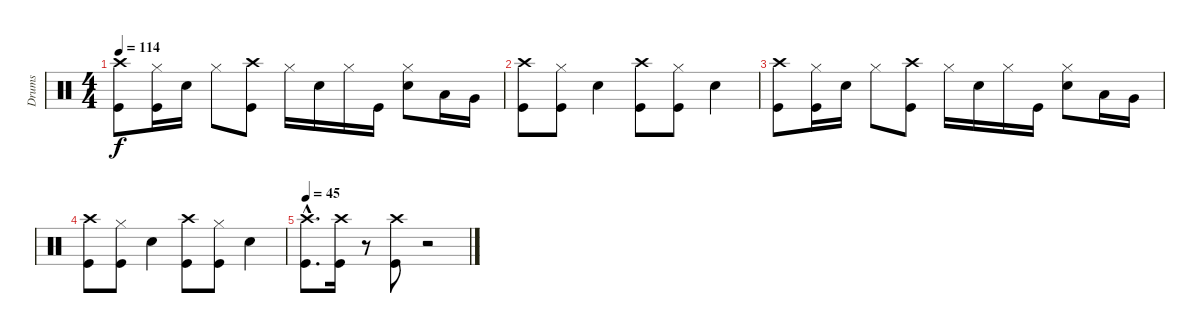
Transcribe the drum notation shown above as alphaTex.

\track ("Drums" "Drums") {instrument percussion}
\staff {score}
\articulation defaults
\ts (4 4)
\tempo 114
\clef neutral
\ks c
("Crash high (hit)" "Kick (hit)").8{dy f} ("Hi-Hat (closed)" "Kick (hit)").16 "Snare (hit) 2".16 "Hi-Hat (closed)".8 ("Crash high (hit)" "Kick (hit)").8 "Hi-Hat (closed)".16 "Snare (hit) 2".16 "Hi-Hat (closed)".16 "Kick (hit)".16 ("Hi-Hat (closed)" "Snare (hit) 2").8 "Low Tom (hit)".16 "Very Low Tom (hit)".16 |
("Crash high (hit)" "Kick (hit)").8 ("Hi-Hat (closed)" "Kick (hit)").8 "Snare (hit) 2".4 ("Crash high (hit)" "Kick (hit)").8 ("Hi-Hat (closed)" "Kick (hit)").8 "Snare (hit) 2".4 |
("Crash high (hit)" "Kick (hit)").8 ("Hi-Hat (closed)" "Kick (hit)").16 "Snare (hit) 2".16 "Hi-Hat (closed)".8 ("Crash high (hit)" "Kick (hit)").8 "Hi-Hat (closed)".16 "Snare (hit) 2".16 "Hi-Hat (closed)".16 "Kick (hit)".16 ("Hi-Hat (closed)" "Snare (hit) 2").8 "Low Tom (hit)".16 "Very Low Tom (hit)".16 |
("Crash high (hit)" "Kick (hit)").8 ("Hi-Hat (closed)" "Kick (hit)").8 "Snare (hit) 2".4 ("Crash high (hit)" "Kick (hit)").8 ("Hi-Hat (closed)" "Kick (hit)").8 "Snare (hit) 2".4 |
\tempo 45
("Crash high (hit)"{hac} "Kick (hit)"{hac}).8{d} ("Crash high (hit)" "Kick (hit)").16 r.8 ("Crash high (hit)" "Kick (hit)").8 r.2
